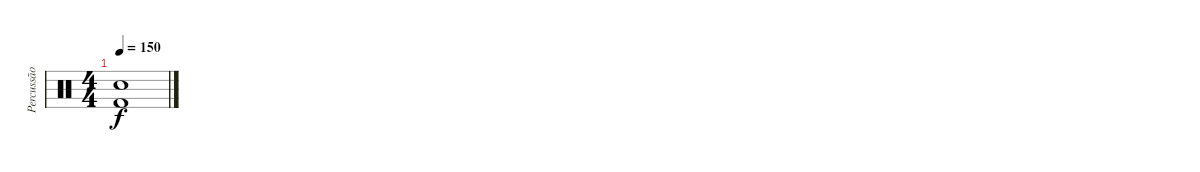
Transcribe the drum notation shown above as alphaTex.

\track ("Percussão" "Percussão") {instrument percussion}
\staff {score}
\articulation defaults
\ts (4 4)
\tempo 150
\clef neutral
\ks c
("Snare (hit) 2" "Kick (hit) 2").1{dy f}
